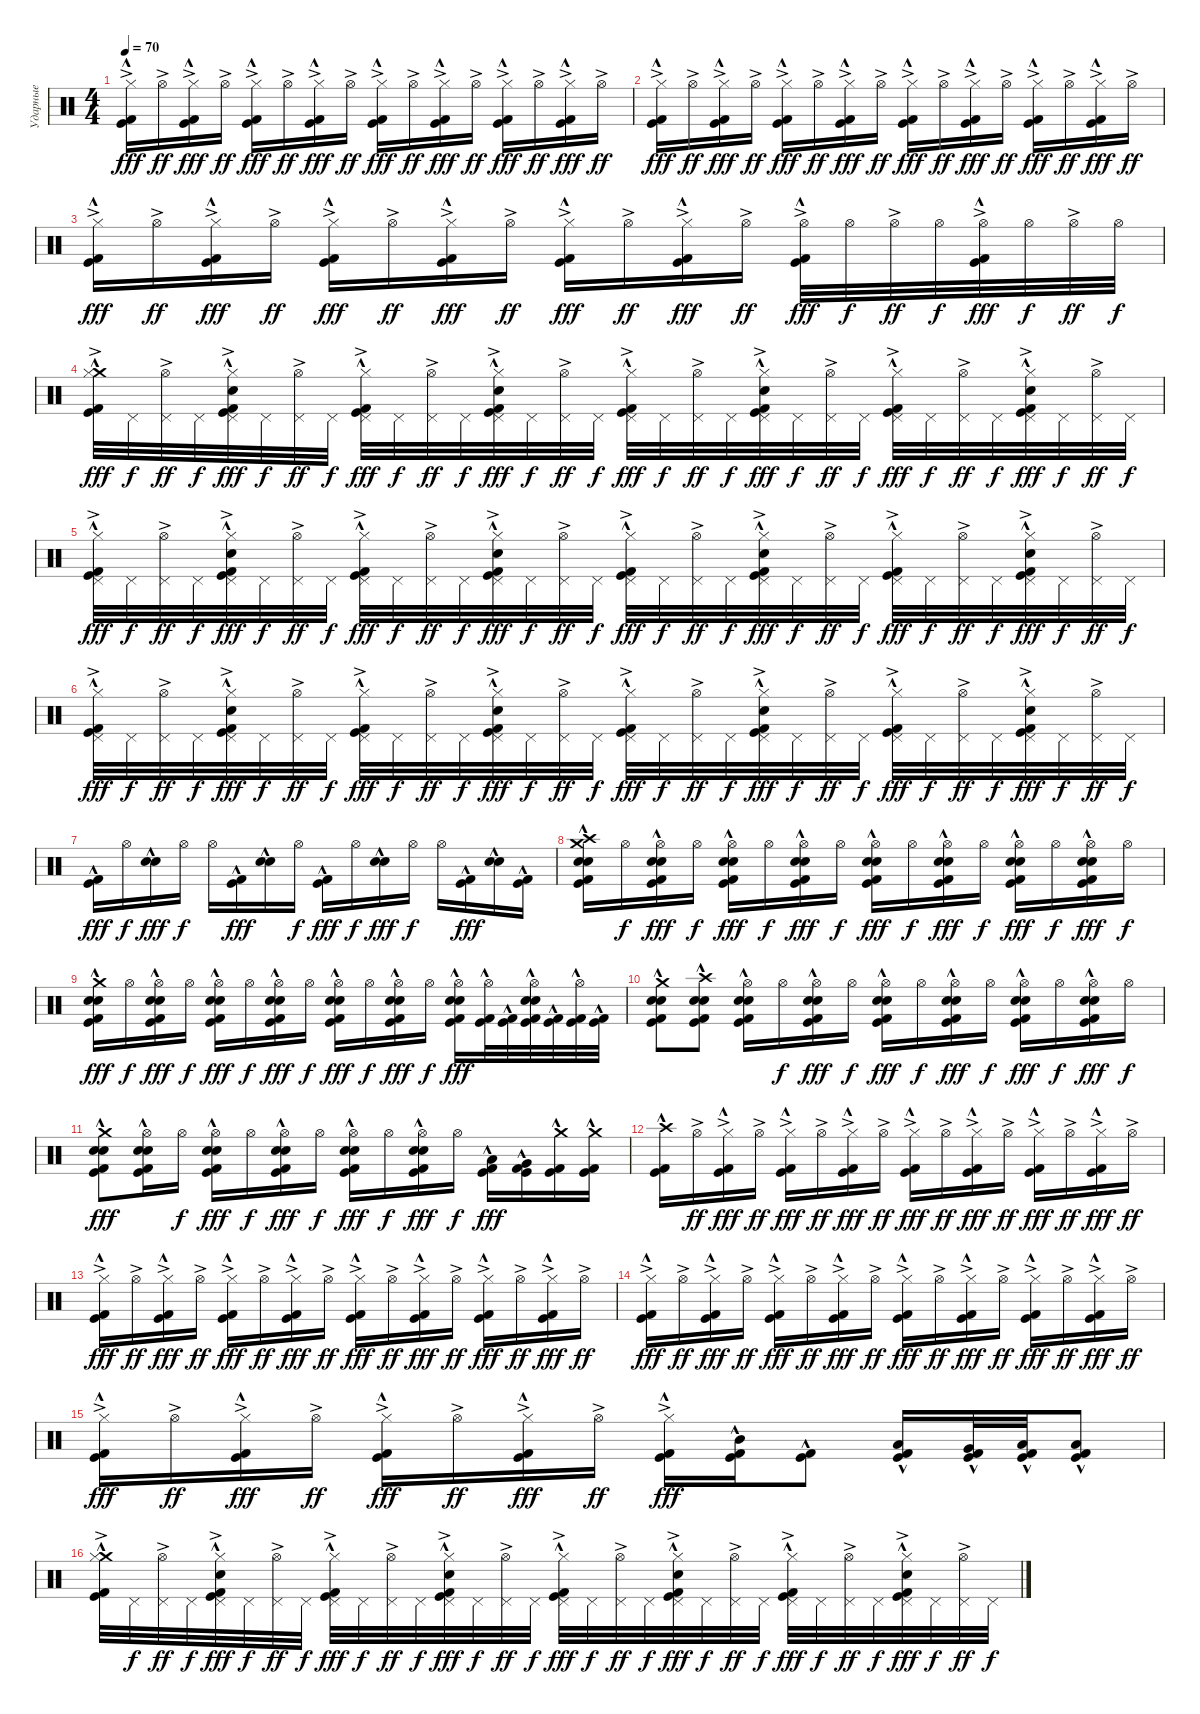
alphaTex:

\track ("Ударные" "Ударные") {instrument percussion}
\staff {score}
\articulation defaults
\ts (4 4)
\tempo 70
\clef neutral
\ks c
("Hi-Hat (closed)"{ac} "Kick (hit) 2"{hac} "Kick (hit)"{hac}).16{dy fff} "Hi-Hat (open)"{ac}.16{dy ff} ("Hi-Hat (closed)"{ac} "Kick (hit) 2"{hac} "Kick (hit)"{hac}).16{dy fff} "Hi-Hat (open)"{ac}.16{dy ff} ("Hi-Hat (closed)"{ac} "Kick (hit) 2"{hac} "Kick (hit)"{hac}).16{dy fff} "Hi-Hat (open)"{ac}.16{dy ff} ("Hi-Hat (closed)"{ac} "Kick (hit) 2"{hac} "Kick (hit)"{hac}).16{dy fff} "Hi-Hat (open)"{ac}.16{dy ff} ("Hi-Hat (closed)"{ac} "Kick (hit) 2"{hac} "Kick (hit)"{hac}).16{dy fff} "Hi-Hat (open)"{ac}.16{dy ff} ("Hi-Hat (closed)"{ac} "Kick (hit) 2"{hac} "Kick (hit)"{hac}).16{dy fff} "Hi-Hat (open)"{ac}.16{dy ff} ("Hi-Hat (closed)"{ac} "Kick (hit) 2"{hac} "Kick (hit)"{hac}).16{dy fff} "Hi-Hat (open)"{ac}.16{dy ff} ("Hi-Hat (closed)"{ac} "Kick (hit) 2"{hac} "Kick (hit)"{hac}).16{dy fff} "Hi-Hat (open)"{ac}.16{dy ff} |
("Hi-Hat (closed)"{ac} "Kick (hit) 2"{hac} "Kick (hit)"{hac}).16{dy fff} "Hi-Hat (open)"{ac}.16{dy ff} ("Hi-Hat (closed)"{ac} "Kick (hit) 2"{hac} "Kick (hit)"{hac}).16{dy fff} "Hi-Hat (open)"{ac}.16{dy ff} ("Hi-Hat (closed)"{ac} "Kick (hit) 2"{hac} "Kick (hit)"{hac}).16{dy fff} "Hi-Hat (open)"{ac}.16{dy ff} ("Hi-Hat (closed)"{ac} "Kick (hit) 2"{hac} "Kick (hit)"{hac}).16{dy fff} "Hi-Hat (open)"{ac}.16{dy ff} ("Hi-Hat (closed)"{ac} "Kick (hit) 2"{hac} "Kick (hit)"{hac}).16{dy fff} "Hi-Hat (open)"{ac}.16{dy ff} ("Hi-Hat (closed)"{ac} "Kick (hit) 2"{hac} "Kick (hit)"{hac}).16{dy fff} "Hi-Hat (open)"{ac}.16{dy ff} ("Hi-Hat (closed)"{ac} "Kick (hit) 2"{hac} "Kick (hit)"{hac}).16{dy fff} "Hi-Hat (open)"{ac}.16{dy ff} ("Hi-Hat (closed)"{ac} "Kick (hit) 2"{hac} "Kick (hit)"{hac}).16{dy fff} "Hi-Hat (open)"{ac}.16{dy ff} |
("Hi-Hat (closed)"{ac} "Kick (hit) 2"{hac} "Kick (hit)"{hac}).16{dy fff} "Hi-Hat (open)"{ac}.16{dy ff} ("Hi-Hat (closed)"{ac} "Kick (hit) 2"{hac} "Kick (hit)"{hac}).16{dy fff} "Hi-Hat (open)"{ac}.16{dy ff} ("Hi-Hat (closed)"{ac} "Kick (hit) 2"{hac} "Kick (hit)"{hac}).16{dy fff} "Hi-Hat (open)"{ac}.16{dy ff} ("Hi-Hat (closed)"{ac} "Kick (hit) 2"{hac} "Kick (hit)"{hac}).16{dy fff} "Hi-Hat (open)"{ac}.16{dy ff} ("Hi-Hat (closed)"{ac} "Kick (hit) 2"{hac} "Kick (hit)"{hac}).16{dy fff} "Hi-Hat (open)"{ac}.16{dy ff} ("Hi-Hat (closed)"{ac} "Kick (hit) 2"{hac} "Kick (hit)"{hac}).16{dy fff} "Hi-Hat (open)"{ac}.16{dy ff} ("Hi-Hat (open)"{ac} "Kick (hit) 2"{hac} "Kick (hit)"{hac}).32{dy fff} "Hi-Hat (open)".32{dy f} "Hi-Hat (open)"{ac}.32{dy ff} "Hi-Hat (open)".32{dy f} ("Hi-Hat (open)"{ac} "Kick (hit) 2"{hac} "Kick (hit)"{hac}).32{dy fff} "Hi-Hat (open)".32{dy f} "Hi-Hat (open)"{ac}.32{dy ff} "Hi-Hat (open)".32{dy f} |
("Crash medium (hit)"{hac} "Kick (hit) 2"{hac} "Hi-Hat (closed)"{ac} "Kick (hit)"{hac}).32{dy fff} "Pedal Hi-Hat (hit)".32{dy f} ("Pedal Hi-Hat (hit)" "Hi-Hat (open)"{ac}).32{dy ff} "Pedal Hi-Hat (hit)".32{dy f} ("Pedal Hi-Hat (hit)" "Kick (hit) 2"{hac} "Hi-Hat (closed)"{ac} "Electric Snare (hit)"{hac} "Kick (hit)"{hac}).32{dy fff} "Pedal Hi-Hat (hit)".32{dy f} ("Pedal Hi-Hat (hit)" "Hi-Hat (open)"{ac}).32{dy ff} "Pedal Hi-Hat (hit)".32{dy f} ("Pedal Hi-Hat (hit)" "Kick (hit) 2"{hac} "Hi-Hat (closed)"{ac} "Kick (hit)"{hac}).32{dy fff} "Pedal Hi-Hat (hit)".32{dy f} ("Pedal Hi-Hat (hit)" "Hi-Hat (open)"{ac}).32{dy ff} "Pedal Hi-Hat (hit)".32{dy f} ("Pedal Hi-Hat (hit)" "Kick (hit) 2"{hac} "Hi-Hat (closed)"{ac} "Electric Snare (hit)"{hac} "Kick (hit)"{hac}).32{dy fff} "Pedal Hi-Hat (hit)".32{dy f} ("Pedal Hi-Hat (hit)" "Hi-Hat (open)"{ac}).32{dy ff} "Pedal Hi-Hat (hit)".32{dy f} ("Pedal Hi-Hat (hit)" "Kick (hit) 2"{hac} "Hi-Hat (closed)"{ac} "Kick (hit)"{hac}).32{dy fff} "Pedal Hi-Hat (hit)".32{dy f} ("Pedal Hi-Hat (hit)" "Hi-Hat (open)"{ac}).32{dy ff} "Pedal Hi-Hat (hit)".32{dy f} ("Pedal Hi-Hat (hit)" "Kick (hit) 2"{hac} "Hi-Hat (closed)"{ac} "Electric Snare (hit)"{hac} "Kick (hit)"{hac}).32{dy fff} "Pedal Hi-Hat (hit)".32{dy f} ("Pedal Hi-Hat (hit)" "Hi-Hat (open)"{ac}).32{dy ff} "Pedal Hi-Hat (hit)".32{dy f} ("Pedal Hi-Hat (hit)" "Kick (hit) 2"{hac} "Hi-Hat (closed)"{ac} "Kick (hit)"{hac}).32{dy fff} "Pedal Hi-Hat (hit)".32{dy f} ("Pedal Hi-Hat (hit)" "Hi-Hat (open)"{ac}).32{dy ff} "Pedal Hi-Hat (hit)".32{dy f} ("Pedal Hi-Hat (hit)" "Kick (hit) 2"{hac} "Hi-Hat (closed)"{ac} "Electric Snare (hit)"{hac} "Kick (hit)"{hac}).32{dy fff} "Pedal Hi-Hat (hit)".32{dy f} ("Pedal Hi-Hat (hit)" "Hi-Hat (open)"{ac}).32{dy ff} "Pedal Hi-Hat (hit)".32{dy f} |
("Pedal Hi-Hat (hit)" "Kick (hit) 2"{hac} "Hi-Hat (closed)"{ac} "Kick (hit)"{hac}).32{dy fff} "Pedal Hi-Hat (hit)".32{dy f} ("Pedal Hi-Hat (hit)" "Hi-Hat (open)"{ac}).32{dy ff} "Pedal Hi-Hat (hit)".32{dy f} ("Pedal Hi-Hat (hit)" "Kick (hit) 2"{hac} "Hi-Hat (closed)"{ac} "Electric Snare (hit)"{hac} "Kick (hit)"{hac}).32{dy fff} "Pedal Hi-Hat (hit)".32{dy f} ("Pedal Hi-Hat (hit)" "Hi-Hat (open)"{ac}).32{dy ff} "Pedal Hi-Hat (hit)".32{dy f} ("Pedal Hi-Hat (hit)" "Kick (hit) 2"{hac} "Hi-Hat (closed)"{ac} "Kick (hit)"{hac}).32{dy fff} "Pedal Hi-Hat (hit)".32{dy f} ("Pedal Hi-Hat (hit)" "Hi-Hat (open)"{ac}).32{dy ff} "Pedal Hi-Hat (hit)".32{dy f} ("Pedal Hi-Hat (hit)" "Kick (hit) 2"{hac} "Hi-Hat (closed)"{ac} "Electric Snare (hit)"{hac} "Kick (hit)"{hac}).32{dy fff} "Pedal Hi-Hat (hit)".32{dy f} ("Pedal Hi-Hat (hit)" "Hi-Hat (open)"{ac}).32{dy ff} "Pedal Hi-Hat (hit)".32{dy f} ("Pedal Hi-Hat (hit)" "Kick (hit) 2"{hac} "Hi-Hat (closed)"{ac} "Kick (hit)"{hac}).32{dy fff} "Pedal Hi-Hat (hit)".32{dy f} ("Pedal Hi-Hat (hit)" "Hi-Hat (open)"{ac}).32{dy ff} "Pedal Hi-Hat (hit)".32{dy f} ("Pedal Hi-Hat (hit)" "Kick (hit) 2"{hac} "Hi-Hat (closed)"{ac} "Electric Snare (hit)"{hac} "Kick (hit)"{hac}).32{dy fff} "Pedal Hi-Hat (hit)".32{dy f} ("Pedal Hi-Hat (hit)" "Hi-Hat (open)"{ac}).32{dy ff} "Pedal Hi-Hat (hit)".32{dy f} ("Pedal Hi-Hat (hit)" "Kick (hit) 2"{hac} "Hi-Hat (closed)"{ac} "Kick (hit)"{hac}).32{dy fff} "Pedal Hi-Hat (hit)".32{dy f} ("Pedal Hi-Hat (hit)" "Hi-Hat (open)"{ac}).32{dy ff} "Pedal Hi-Hat (hit)".32{dy f} ("Pedal Hi-Hat (hit)" "Kick (hit) 2"{hac} "Hi-Hat (closed)"{ac} "Electric Snare (hit)"{hac} "Kick (hit)"{hac}).32{dy fff} "Pedal Hi-Hat (hit)".32{dy f} ("Pedal Hi-Hat (hit)" "Hi-Hat (open)"{ac}).32{dy ff} "Pedal Hi-Hat (hit)".32{dy f} |
("Pedal Hi-Hat (hit)" "Kick (hit) 2"{hac} "Hi-Hat (closed)"{ac} "Kick (hit)"{hac}).32{dy fff} "Pedal Hi-Hat (hit)".32{dy f} ("Pedal Hi-Hat (hit)" "Hi-Hat (open)"{ac}).32{dy ff} "Pedal Hi-Hat (hit)".32{dy f} ("Pedal Hi-Hat (hit)" "Kick (hit) 2"{hac} "Hi-Hat (closed)"{ac} "Electric Snare (hit)"{hac} "Kick (hit)"{hac}).32{dy fff} "Pedal Hi-Hat (hit)".32{dy f} ("Pedal Hi-Hat (hit)" "Hi-Hat (open)"{ac}).32{dy ff} "Pedal Hi-Hat (hit)".32{dy f} ("Pedal Hi-Hat (hit)" "Kick (hit) 2"{hac} "Hi-Hat (closed)"{ac} "Kick (hit)"{hac}).32{dy fff} "Pedal Hi-Hat (hit)".32{dy f} ("Pedal Hi-Hat (hit)" "Hi-Hat (open)"{ac}).32{dy ff} "Pedal Hi-Hat (hit)".32{dy f} ("Pedal Hi-Hat (hit)" "Kick (hit) 2"{hac} "Hi-Hat (closed)"{ac} "Electric Snare (hit)"{hac} "Kick (hit)"{hac}).32{dy fff} "Pedal Hi-Hat (hit)".32{dy f} ("Pedal Hi-Hat (hit)" "Hi-Hat (open)"{ac}).32{dy ff} "Pedal Hi-Hat (hit)".32{dy f} ("Pedal Hi-Hat (hit)" "Kick (hit) 2"{hac} "Hi-Hat (closed)"{ac} "Kick (hit)"{hac}).32{dy fff} "Pedal Hi-Hat (hit)".32{dy f} ("Pedal Hi-Hat (hit)" "Hi-Hat (open)"{ac}).32{dy ff} "Pedal Hi-Hat (hit)".32{dy f} ("Pedal Hi-Hat (hit)" "Kick (hit) 2"{hac} "Hi-Hat (closed)"{ac} "Electric Snare (hit)"{hac} "Kick (hit)"{hac}).32{dy fff} "Pedal Hi-Hat (hit)".32{dy f} ("Pedal Hi-Hat (hit)" "Hi-Hat (open)"{ac}).32{dy ff} "Pedal Hi-Hat (hit)".32{dy f} ("Pedal Hi-Hat (hit)" "Kick (hit) 2"{hac} "Hi-Hat (closed)"{ac} "Kick (hit)"{hac}).32{dy fff} "Pedal Hi-Hat (hit)".32{dy f} ("Pedal Hi-Hat (hit)" "Hi-Hat (open)"{ac}).32{dy ff} "Pedal Hi-Hat (hit)".32{dy f} ("Pedal Hi-Hat (hit)" "Kick (hit) 2"{hac} "Hi-Hat (closed)"{ac} "Electric Snare (hit)"{hac} "Kick (hit)"{hac}).32{dy fff} "Pedal Hi-Hat (hit)".32{dy f} ("Pedal Hi-Hat (hit)" "Hi-Hat (open)"{ac}).32{dy ff} "Pedal Hi-Hat (hit)".32{dy f} |
("Kick (hit)"{hac} "Kick (hit) 2"{hac}).16{dy fff} "Hi-Hat (open)".16{dy f} ("Snare (hit) 2"{hac} "Electric Snare (hit)"{hac}).16{dy fff} "Hi-Hat (open)".16{dy f} "Hi-Hat (open)".16 ("Kick (hit)"{hac} "Kick (hit) 2"{hac}).16{dy fff} ("Snare (hit) 2"{hac} "Electric Snare (hit)"{hac}).16 "Hi-Hat (open)".16{dy f} ("Kick (hit)"{hac} "Kick (hit) 2"{hac}).16{dy fff} "Hi-Hat (open)".16{dy f} ("Snare (hit) 2"{hac} "Electric Snare (hit)"{hac}).16{dy fff} "Hi-Hat (open)".16{dy f} "Hi-Hat (open)".16 ("Kick (hit)"{hac} "Kick (hit) 2"{hac}).16{dy fff} ("Snare (hit) 2"{hac} "Electric Snare (hit)"{hac}).16 ("Kick (hit)"{hac} "Kick (hit) 2"{hac}).16 |
("Crash high (hit)"{hac} "Kick (hit) 2"{hac} "Snare (hit) 2"{hac} "Kick (hit)"{hac} "Electric Snare (hit)"{hac} "Crash medium (hit)"{hac}).16 "Hi-Hat (open)".16{dy f} ("Hi-Hat (open)" "Kick (hit) 2"{hac} "Snare (hit) 2"{hac} "Kick (hit)"{hac} "Electric Snare (hit)"{hac}).16{dy fff} "Hi-Hat (open)".16{dy f} ("Hi-Hat (open)" "Kick (hit) 2"{hac} "Snare (hit) 2"{hac} "Kick (hit)"{hac} "Electric Snare (hit)"{hac}).16{dy fff} "Hi-Hat (open)".16{dy f} ("Hi-Hat (open)" "Kick (hit) 2"{hac} "Snare (hit) 2"{hac} "Kick (hit)"{hac} "Electric Snare (hit)"{hac}).16{dy fff} "Hi-Hat (open)".16{dy f} ("Hi-Hat (open)" "Kick (hit) 2"{hac} "Snare (hit) 2"{hac} "Kick (hit)"{hac} "Electric Snare (hit)"{hac}).16{dy fff} "Hi-Hat (open)".16{dy f} ("Hi-Hat (open)" "Kick (hit) 2"{hac} "Snare (hit) 2"{hac} "Kick (hit)"{hac} "Electric Snare (hit)"{hac}).16{dy fff} "Hi-Hat (open)".16{dy f} ("Hi-Hat (open)" "Kick (hit) 2"{hac} "Snare (hit) 2"{hac} "Kick (hit)"{hac} "Electric Snare (hit)"{hac}).16{dy fff} "Hi-Hat (open)".16{dy f} ("Hi-Hat (open)" "Kick (hit) 2"{hac} "Snare (hit) 2"{hac} "Kick (hit)"{hac} "Electric Snare (hit)"{hac}).16{dy fff} "Hi-Hat (open)".16{dy f} |
("Crash medium (hit)"{hac} "Kick (hit) 2"{hac} "Snare (hit) 2"{hac} "Kick (hit)"{hac} "Electric Snare (hit)"{hac}).16{dy fff} "Hi-Hat (open)".16{dy f} ("Hi-Hat (open)" "Kick (hit) 2"{hac} "Snare (hit) 2"{hac} "Kick (hit)"{hac} "Electric Snare (hit)"{hac}).16{dy fff} "Hi-Hat (open)".16{dy f} ("Hi-Hat (open)" "Kick (hit) 2"{hac} "Snare (hit) 2"{hac} "Kick (hit)"{hac} "Electric Snare (hit)"{hac}).16{dy fff} "Hi-Hat (open)".16{dy f} ("Hi-Hat (open)" "Kick (hit) 2"{hac} "Snare (hit) 2"{hac} "Kick (hit)"{hac} "Electric Snare (hit)"{hac}).16{dy fff} "Hi-Hat (open)".16{dy f} ("Hi-Hat (open)" "Kick (hit) 2"{hac} "Snare (hit) 2"{hac} "Kick (hit)"{hac} "Electric Snare (hit)"{hac}).16{dy fff} "Hi-Hat (open)".16{dy f} ("Hi-Hat (open)" "Kick (hit) 2"{hac} "Snare (hit) 2"{hac} "Kick (hit)"{hac} "Electric Snare (hit)"{hac}).16{dy fff} "Hi-Hat (open)".16{dy f} ("Hi-Hat (open)" "Kick (hit) 2"{hac} "Snare (hit) 2"{hac} "Kick (hit)"{hac} "Electric Snare (hit)"{hac}).16{dy fff} ("Hi-Hat (open)" "Kick (hit) 2"{hac} "Kick (hit)"{hac}).32 ("Kick (hit) 2"{hac} "Kick (hit)"{hac}).32 ("Hi-Hat (open)" "Kick (hit) 2"{hac} "Snare (hit) 2"{hac} "Kick (hit)"{hac} "Electric Snare (hit)"{hac}).32 ("Kick (hit) 2"{hac} "Kick (hit)"{hac}).32 ("Hi-Hat (open)" "Kick (hit) 2"{hac} "Kick (hit)"{hac}).32 ("Kick (hit) 2"{hac} "Kick (hit)"{hac}).32 |
("Crash medium (hit)"{hac} "Kick (hit) 2"{hac} "Snare (hit) 2"{hac} "Kick (hit)"{hac} "Electric Snare (hit)"{hac}).8 ("Crash high (hit)"{hac} "Kick (hit) 2"{hac} "Snare (hit) 2"{hac} "Kick (hit)"{hac} "Electric Snare (hit)"{hac}).8 ("Hi-Hat (open)" "Kick (hit) 2"{hac} "Snare (hit) 2"{hac} "Kick (hit)"{hac} "Electric Snare (hit)"{hac}).16 "Hi-Hat (open)".16{dy f} ("Hi-Hat (open)" "Kick (hit) 2"{hac} "Snare (hit) 2"{hac} "Kick (hit)"{hac} "Electric Snare (hit)"{hac}).16{dy fff} "Hi-Hat (open)".16{dy f} ("Hi-Hat (open)" "Kick (hit) 2"{hac} "Snare (hit) 2"{hac} "Kick (hit)"{hac} "Electric Snare (hit)"{hac}).16{dy fff} "Hi-Hat (open)".16{dy f} ("Hi-Hat (open)" "Kick (hit) 2"{hac} "Snare (hit) 2"{hac} "Kick (hit)"{hac} "Electric Snare (hit)"{hac}).16{dy fff} "Hi-Hat (open)".16{dy f} ("Hi-Hat (open)" "Kick (hit) 2"{hac} "Snare (hit) 2"{hac} "Kick (hit)"{hac} "Electric Snare (hit)"{hac}).16{dy fff} "Hi-Hat (open)".16{dy f} ("Hi-Hat (open)" "Kick (hit) 2"{hac} "Snare (hit) 2"{hac} "Kick (hit)"{hac} "Electric Snare (hit)"{hac}).16{dy fff} "Hi-Hat (open)".16{dy f} |
("Crash medium (hit)"{hac} "Kick (hit) 2"{hac} "Snare (hit) 2"{hac} "Kick (hit)"{hac} "Electric Snare (hit)"{hac}).8{dy fff} ("Hi-Hat (open)" "Kick (hit) 2"{hac} "Snare (hit) 2"{hac} "Kick (hit)"{hac} "Electric Snare (hit)"{hac}).16 "Hi-Hat (open)".16{dy f} ("Hi-Hat (open)" "Kick (hit) 2"{hac} "Snare (hit) 2"{hac} "Kick (hit)"{hac} "Electric Snare (hit)"{hac}).16{dy fff} "Hi-Hat (open)".16{dy f} ("Hi-Hat (open)" "Kick (hit) 2"{hac} "Snare (hit) 2"{hac} "Kick (hit)"{hac} "Electric Snare (hit)"{hac}).16{dy fff} "Hi-Hat (open)".16{dy f} ("Hi-Hat (open)" "Kick (hit) 2"{hac} "Snare (hit) 2"{hac} "Kick (hit)"{hac} "Electric Snare (hit)"{hac}).16{dy fff} "Hi-Hat (open)".16{dy f} ("Hi-Hat (open)" "Kick (hit) 2"{hac} "Snare (hit) 2"{hac} "Kick (hit)"{hac} "Electric Snare (hit)"{hac}).16{dy fff} "Hi-Hat (open)".16{dy f} ("Low Tom (hit)"{hac} "Kick (hit)"{hac} "Kick (hit) 2"{hac}).16{dy fff} ("Very Low Tom (hit)"{hac} "Kick (hit)"{hac} "Kick (hit) 2"{hac}).16 ("Crash medium (hit)"{hac} "Kick (hit) 2"{hac} "Kick (hit)"{hac}).16 ("Crash medium (hit)"{hac} "Kick (hit) 2"{hac} "Kick (hit)"{hac}).16 |
("Crash high (hit)"{hac} "Kick (hit) 2"{hac} "Kick (hit)"{hac}).16 "Hi-Hat (open)"{ac}.16{dy ff} ("Hi-Hat (closed)"{ac} "Kick (hit) 2"{hac} "Kick (hit)"{hac}).16{dy fff} "Hi-Hat (open)"{ac}.16{dy ff} ("Hi-Hat (closed)"{ac} "Kick (hit) 2"{hac} "Kick (hit)"{hac}).16{dy fff} "Hi-Hat (open)"{ac}.16{dy ff} ("Hi-Hat (closed)"{ac} "Kick (hit) 2"{hac} "Kick (hit)"{hac}).16{dy fff} "Hi-Hat (open)"{ac}.16{dy ff} ("Hi-Hat (closed)"{ac} "Kick (hit) 2"{hac} "Kick (hit)"{hac}).16{dy fff} "Hi-Hat (open)"{ac}.16{dy ff} ("Hi-Hat (closed)"{ac} "Kick (hit) 2"{hac} "Kick (hit)"{hac}).16{dy fff} "Hi-Hat (open)"{ac}.16{dy ff} ("Hi-Hat (closed)"{ac} "Kick (hit) 2"{hac} "Kick (hit)"{hac}).16{dy fff} "Hi-Hat (open)"{ac}.16{dy ff} ("Hi-Hat (closed)"{ac} "Kick (hit) 2"{hac} "Kick (hit)"{hac}).16{dy fff} "Hi-Hat (open)"{ac}.16{dy ff} |
("Hi-Hat (closed)"{ac} "Kick (hit) 2"{hac} "Kick (hit)"{hac}).16{dy fff} "Hi-Hat (open)"{ac}.16{dy ff} ("Hi-Hat (closed)"{ac} "Kick (hit) 2"{hac} "Kick (hit)"{hac}).16{dy fff} "Hi-Hat (open)"{ac}.16{dy ff} ("Hi-Hat (closed)"{ac} "Kick (hit) 2"{hac} "Kick (hit)"{hac}).16{dy fff} "Hi-Hat (open)"{ac}.16{dy ff} ("Hi-Hat (closed)"{ac} "Kick (hit) 2"{hac} "Kick (hit)"{hac}).16{dy fff} "Hi-Hat (open)"{ac}.16{dy ff} ("Hi-Hat (closed)"{ac} "Kick (hit) 2"{hac} "Kick (hit)"{hac}).16{dy fff} "Hi-Hat (open)"{ac}.16{dy ff} ("Hi-Hat (closed)"{ac} "Kick (hit) 2"{hac} "Kick (hit)"{hac}).16{dy fff} "Hi-Hat (open)"{ac}.16{dy ff} ("Hi-Hat (closed)"{ac} "Kick (hit) 2"{hac} "Kick (hit)"{hac}).16{dy fff} "Hi-Hat (open)"{ac}.16{dy ff} ("Hi-Hat (closed)"{ac} "Kick (hit) 2"{hac} "Kick (hit)"{hac}).16{dy fff} "Hi-Hat (open)"{ac}.16{dy ff} |
("Hi-Hat (closed)"{ac} "Kick (hit) 2"{hac} "Kick (hit)"{hac}).16{dy fff} "Hi-Hat (open)"{ac}.16{dy ff} ("Hi-Hat (closed)"{ac} "Kick (hit) 2"{hac} "Kick (hit)"{hac}).16{dy fff} "Hi-Hat (open)"{ac}.16{dy ff} ("Hi-Hat (closed)"{ac} "Kick (hit) 2"{hac} "Kick (hit)"{hac}).16{dy fff} "Hi-Hat (open)"{ac}.16{dy ff} ("Hi-Hat (closed)"{ac} "Kick (hit) 2"{hac} "Kick (hit)"{hac}).16{dy fff} "Hi-Hat (open)"{ac}.16{dy ff} ("Hi-Hat (closed)"{ac} "Kick (hit) 2"{hac} "Kick (hit)"{hac}).16{dy fff} "Hi-Hat (open)"{ac}.16{dy ff} ("Hi-Hat (closed)"{ac} "Kick (hit) 2"{hac} "Kick (hit)"{hac}).16{dy fff} "Hi-Hat (open)"{ac}.16{dy ff} ("Hi-Hat (closed)"{ac} "Kick (hit) 2"{hac} "Kick (hit)"{hac}).16{dy fff} "Hi-Hat (open)"{ac}.16{dy ff} ("Hi-Hat (closed)"{ac} "Kick (hit) 2"{hac} "Kick (hit)"{hac}).16{dy fff} "Hi-Hat (open)"{ac}.16{dy ff} |
("Hi-Hat (closed)"{ac} "Kick (hit) 2"{hac} "Kick (hit)"{hac}).16{dy fff} "Hi-Hat (open)"{ac}.16{dy ff} ("Hi-Hat (closed)"{ac} "Kick (hit) 2"{hac} "Kick (hit)"{hac}).16{dy fff} "Hi-Hat (open)"{ac}.16{dy ff} ("Hi-Hat (closed)"{ac} "Kick (hit) 2"{hac} "Kick (hit)"{hac}).16{dy fff} "Hi-Hat (open)"{ac}.16{dy ff} ("Hi-Hat (closed)"{ac} "Kick (hit) 2"{hac} "Kick (hit)"{hac}).16{dy fff} "Hi-Hat (open)"{ac}.16{dy ff} ("Hi-Hat (closed)"{ac} "Kick (hit) 2"{hac} "Kick (hit)"{hac}).16{dy fff} ("Mid Tom (hit)"{hac} "Kick (hit)"{hac} "Kick (hit) 2"{hac}).16 ("Kick (hit) 2"{hac} "Kick (hit)"{hac}).8 ("Low Tom (hit)"{hac} "Kick (hit) 2"{hac} "Kick (hit)"{hac}).16 ("Very Low Tom (hit)"{hac} "Kick (hit) 2"{hac} "Kick (hit)"{hac}).32 ("Low Floor Tom (hit)"{hac} "Kick (hit) 2"{hac} "Kick (hit)"{hac}).32 ("Low Floor Tom (hit)"{hac} "Kick (hit) 2"{hac} "Kick (hit)"{hac}).8 |
("Crash medium (hit)"{hac} "Kick (hit) 2"{hac} "Hi-Hat (closed)"{ac} "Kick (hit)"{hac}).32 "Pedal Hi-Hat (hit)".32{dy f} ("Pedal Hi-Hat (hit)" "Hi-Hat (open)"{ac}).32{dy ff} "Pedal Hi-Hat (hit)".32{dy f} ("Pedal Hi-Hat (hit)" "Kick (hit) 2"{hac} "Hi-Hat (closed)"{ac} "Electric Snare (hit)"{hac} "Kick (hit)"{hac}).32{dy fff} "Pedal Hi-Hat (hit)".32{dy f} ("Pedal Hi-Hat (hit)" "Hi-Hat (open)"{ac}).32{dy ff} "Pedal Hi-Hat (hit)".32{dy f} ("Pedal Hi-Hat (hit)" "Kick (hit) 2"{hac} "Hi-Hat (closed)"{ac} "Kick (hit)"{hac}).32{dy fff} "Pedal Hi-Hat (hit)".32{dy f} ("Pedal Hi-Hat (hit)" "Hi-Hat (open)"{ac}).32{dy ff} "Pedal Hi-Hat (hit)".32{dy f} ("Pedal Hi-Hat (hit)" "Kick (hit) 2"{hac} "Hi-Hat (closed)"{ac} "Electric Snare (hit)"{hac} "Kick (hit)"{hac}).32{dy fff} "Pedal Hi-Hat (hit)".32{dy f} ("Pedal Hi-Hat (hit)" "Hi-Hat (open)"{ac}).32{dy ff} "Pedal Hi-Hat (hit)".32{dy f} ("Pedal Hi-Hat (hit)" "Kick (hit) 2"{hac} "Hi-Hat (closed)"{ac} "Kick (hit)"{hac}).32{dy fff} "Pedal Hi-Hat (hit)".32{dy f} ("Pedal Hi-Hat (hit)" "Hi-Hat (open)"{ac}).32{dy ff} "Pedal Hi-Hat (hit)".32{dy f} ("Pedal Hi-Hat (hit)" "Kick (hit) 2"{hac} "Hi-Hat (closed)"{ac} "Electric Snare (hit)"{hac} "Kick (hit)"{hac}).32{dy fff} "Pedal Hi-Hat (hit)".32{dy f} ("Pedal Hi-Hat (hit)" "Hi-Hat (open)"{ac}).32{dy ff} "Pedal Hi-Hat (hit)".32{dy f} ("Pedal Hi-Hat (hit)" "Kick (hit) 2"{hac} "Hi-Hat (closed)"{ac} "Kick (hit)"{hac}).32{dy fff} "Pedal Hi-Hat (hit)".32{dy f} ("Pedal Hi-Hat (hit)" "Hi-Hat (open)"{ac}).32{dy ff} "Pedal Hi-Hat (hit)".32{dy f} ("Pedal Hi-Hat (hit)" "Kick (hit) 2"{hac} "Hi-Hat (closed)"{ac} "Electric Snare (hit)"{hac} "Kick (hit)"{hac}).32{dy fff} "Pedal Hi-Hat (hit)".32{dy f} ("Pedal Hi-Hat (hit)" "Hi-Hat (open)"{ac}).32{dy ff} "Pedal Hi-Hat (hit)".32{dy f}
